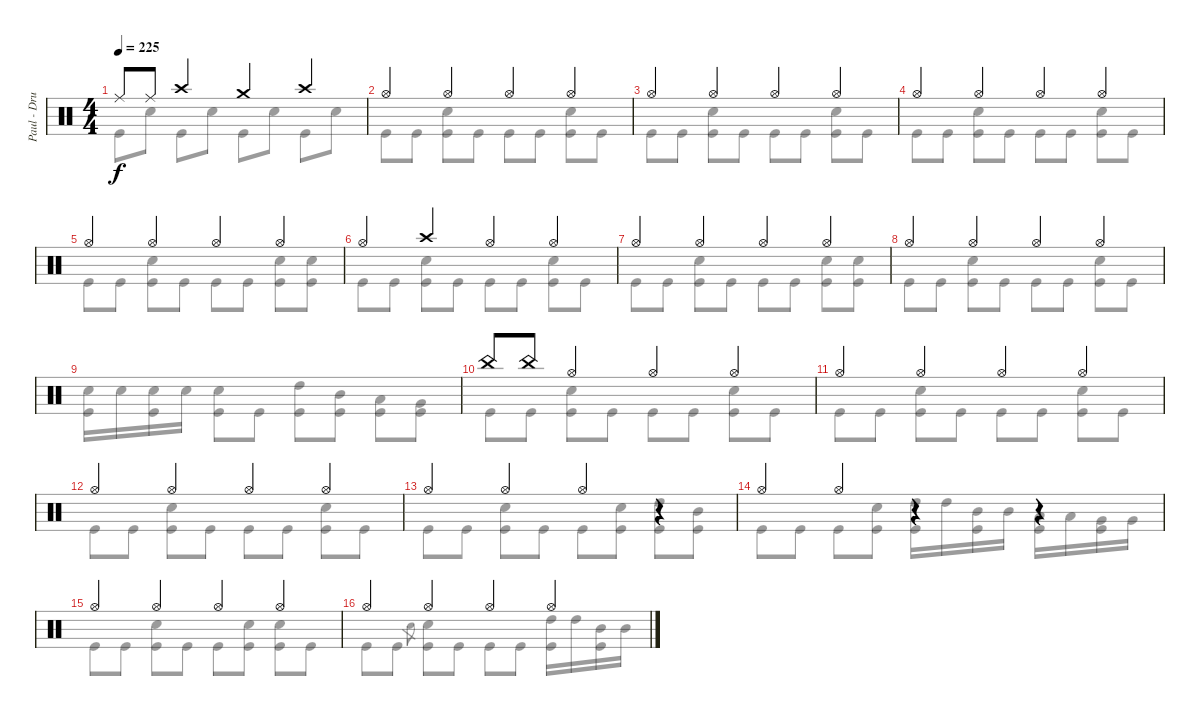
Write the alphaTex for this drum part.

\track ("Paul - Drums" "Paul - Dru") {instrument percussion}
\staff {score}
\articulation defaults
\voice
\ts (4 4)
\tempo 225
\clef neutral
\ks c "Ride (middle)".8{dy f} "Ride (middle)".8 "Crash high (hit)".4 "Crash medium (hit)".4 "Crash high (hit)".4
|
"Hi-Hat (open)".4 "Hi-Hat (open)".4 "Hi-Hat (open)".4 "Hi-Hat (open)".4 |
"Hi-Hat (open)".4 "Hi-Hat (open)".4 "Hi-Hat (open)".4 "Hi-Hat (open)".4 |
"Hi-Hat (open)".4 "Hi-Hat (open)".4 "Hi-Hat (open)".4 "Hi-Hat (open)".4 |
"Hi-Hat (open)".4 "Hi-Hat (open)".4 "Hi-Hat (open)".4 "Hi-Hat (open)".4 |
"Hi-Hat (open)".4 "Crash high (hit)".4 "Hi-Hat (open)".4 "Hi-Hat (open)".4 |
"Hi-Hat (open)".4 "Hi-Hat (open)".4 "Hi-Hat (open)".4 "Hi-Hat (open)".4 |
"Hi-Hat (open)".4 "Hi-Hat (open)".4 "Hi-Hat (open)".4 "Hi-Hat (open)".4 |
|
"China (hit)".8 "China (hit)".8 "Hi-Hat (open)".4 "Hi-Hat (open)".4 "Hi-Hat (open)".4 |
"Hi-Hat (open)".4 "Hi-Hat (open)".4 "Hi-Hat (open)".4 "Hi-Hat (open)".4 |
"Hi-Hat (open)".4 "Hi-Hat (open)".4 "Hi-Hat (open)".4 "Hi-Hat (open)".4 |
"Hi-Hat (open)".4 "Hi-Hat (open)".4 "Hi-Hat (open)".4 r.4 |
"Hi-Hat (open)".4 "Hi-Hat (open)".4 r.4 r.4 |
"Hi-Hat (open)".4 "Hi-Hat (open)".4 "Hi-Hat (open)".4 "Hi-Hat (open)".4 |
"Hi-Hat (open)".4 "Hi-Hat (open)".4 "Hi-Hat (open)".4 "Hi-Hat (open)".4
\voice
\clef neutral
\ottava regular
\simile none
\ks c "Kick (hit)".8{dy f} "Snare (hit) 2".8 "Kick (hit)".8 "Snare (hit) 2".8 "Kick (hit)".8 "Snare (hit) 2".8 "Kick (hit)".8 "Snare (hit) 2".8
|
"Kick (hit)".8 "Kick (hit)".8 ("Snare (hit) 2" "Kick (hit)").8 "Kick (hit)".8 "Kick (hit)".8 "Kick (hit)".8 ("Snare (hit) 2" "Kick (hit)").8 "Kick (hit)".8 |
"Kick (hit)".8 "Kick (hit)".8 ("Snare (hit) 2" "Kick (hit)").8 "Kick (hit)".8 "Kick (hit)".8 "Kick (hit)".8 ("Snare (hit) 2" "Kick (hit)").8 "Kick (hit)".8 |
"Kick (hit)".8 "Kick (hit)".8 ("Snare (hit) 2" "Kick (hit)").8 "Kick (hit)".8 "Kick (hit)".8 "Kick (hit)".8 ("Snare (hit) 2" "Kick (hit)").8 "Kick (hit)".8 |
"Kick (hit)".8 "Kick (hit)".8 ("Snare (hit) 2" "Kick (hit)").8 "Kick (hit)".8 "Kick (hit)".8 "Kick (hit)".8 ("Snare (hit) 2" "Kick (hit)").8 ("Snare (hit) 2" "Kick (hit)").8 |
"Kick (hit)".8 "Kick (hit)".8 ("Snare (hit) 2" "Kick (hit)").8 "Kick (hit)".8 "Kick (hit)".8 "Kick (hit)".8 ("Snare (hit) 2" "Kick (hit)").8 "Kick (hit)".8 |
"Kick (hit)".8 "Kick (hit)".8 ("Snare (hit) 2" "Kick (hit)").8 "Kick (hit)".8 "Kick (hit)".8 "Kick (hit)".8 ("Snare (hit) 2" "Kick (hit)").8 ("Snare (hit) 2" "Kick (hit)").8 |
"Kick (hit)".8 "Kick (hit)".8 ("Snare (hit) 2" "Kick (hit)").8 "Kick (hit)".8 "Kick (hit)".8 "Kick (hit)".8 ("Snare (hit) 2" "Kick (hit)").8 "Kick (hit)".8 |
("Snare (hit) 2" "Kick (hit)").16 "Snare (hit) 2".16 ("Snare (hit) 2" "Kick (hit)").16 "Snare (hit) 2".16 ("Snare (hit) 2" "Kick (hit)").8 "Kick (hit)".8 ("High Tom (hit)" "Kick (hit)").8 ("Mid Tom (hit)" "Kick (hit)").8 ("Low Tom (hit)" "Kick (hit)").8 ("Very Low Tom (hit)" "Kick (hit)").8 |
"Kick (hit)".8 "Kick (hit)".8 ("Snare (hit) 2" "Kick (hit)").8 "Kick (hit)".8 "Kick (hit)".8 "Kick (hit)".8 ("Snare (hit) 2" "Kick (hit)").8 "Kick (hit)".8 |
"Kick (hit)".8 "Kick (hit)".8 ("Snare (hit) 2" "Kick (hit)").8 "Kick (hit)".8 "Kick (hit)".8 "Kick (hit)".8 ("Snare (hit) 2" "Kick (hit)").8 "Kick (hit)".8 |
"Kick (hit)".8 "Kick (hit)".8 ("Snare (hit) 2" "Kick (hit)").8 "Kick (hit)".8 "Kick (hit)".8 "Kick (hit)".8 ("Snare (hit) 2" "Kick (hit)").8 "Kick (hit)".8 |
"Kick (hit)".8 "Kick (hit)".8 ("Snare (hit) 2" "Kick (hit)").8 "Kick (hit)".8 "Kick (hit)".8 ("Snare (hit) 2" "Kick (hit)").8 ("High Tom (hit)" "Kick (hit)").8 ("Mid Tom (hit)" "Kick (hit)").8 |
"Kick (hit)".8 "Kick (hit)".8 "Kick (hit)".8 ("Snare (hit) 2" "Kick (hit)").8 ("High Tom (hit)" "Kick (hit)").16 "High Tom (hit)".16 ("Mid Tom (hit)" "Kick (hit)").16 "Mid Tom (hit)".16 ("Low Tom (hit)" "Kick (hit)").16 "Low Tom (hit)".16 ("Very Low Tom (hit)" "Kick (hit)").16 "Very Low Tom (hit)".16 |
"Kick (hit)".8 "Kick (hit)".8 ("Snare (hit) 2" "Kick (hit)").8 "Kick (hit)".8 "Kick (hit)".8 ("Snare (hit) 2" "Kick (hit)").8 ("Snare (hit) 2" "Kick (hit)").8 "Kick (hit)".8 |
"Kick (hit)".8 "Kick (hit)".8 "Snare (hit) 2".8{gr} ("Snare (hit) 2" "Kick (hit)").8 "Kick (hit)".8 "Kick (hit)".8 "Kick (hit)".8 ("High Tom (hit)" "Kick (hit)").16 "High Tom (hit)".16 ("Mid Tom (hit)" "Kick (hit)").16 "Mid Tom (hit)".16
